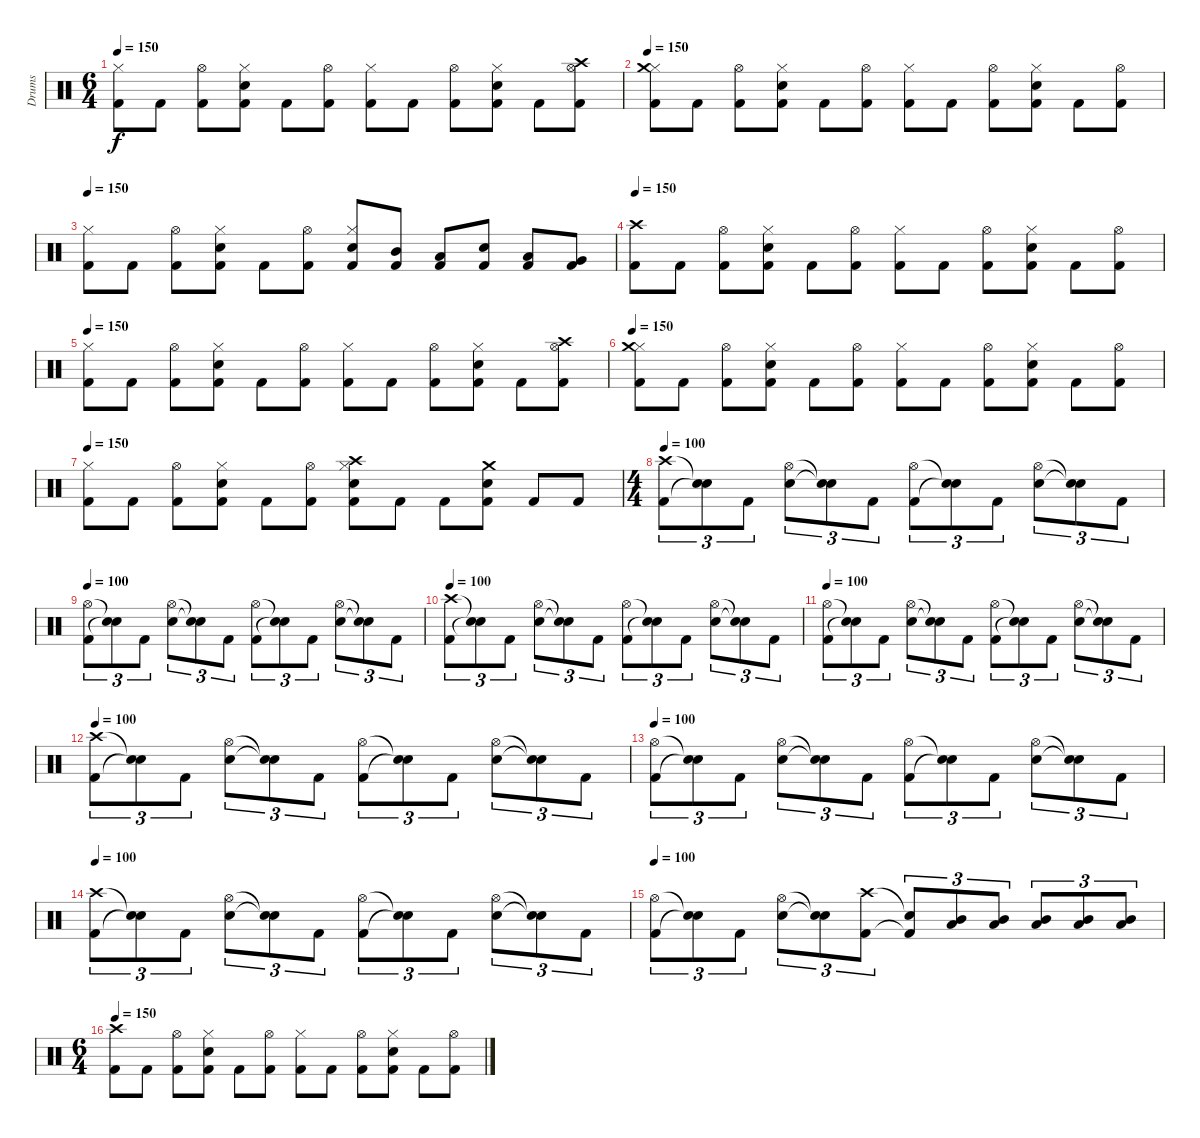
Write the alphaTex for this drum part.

\track ("Drums" "Drums") {instrument percussion}
\staff {score}
\articulation defaults
\ts (6 4)
\tempo 150
\clef neutral
\ks c
("Kick (hit) 2" "Hi-Hat (closed)").8{dy f} "Kick (hit) 2".8 ("Kick (hit) 2" "Hi-Hat (open)").8 ("Kick (hit) 2" "Electric Snare (hit)" "Hi-Hat (closed)").8 "Kick (hit) 2".8 ("Kick (hit) 2" "Hi-Hat (open)").8 ("Kick (hit) 2" "Hi-Hat (closed)").8 "Kick (hit) 2".8 ("Kick (hit) 2" "Hi-Hat (open)").8 ("Kick (hit) 2" "Electric Snare (hit)" "Hi-Hat (closed)").8 "Kick (hit) 2".8 ("Kick (hit) 2" "Hi-Hat (open)" "Crash high (hit)").8 |
\tempo 150
("Kick (hit) 2" "Hi-Hat (closed)" "Crash medium (hit)").8 "Kick (hit) 2".8 ("Kick (hit) 2" "Hi-Hat (open)").8 ("Kick (hit) 2" "Electric Snare (hit)" "Hi-Hat (closed)").8 "Kick (hit) 2".8 ("Kick (hit) 2" "Hi-Hat (open)").8 ("Kick (hit) 2" "Hi-Hat (closed)").8 "Kick (hit) 2".8 ("Kick (hit) 2" "Hi-Hat (open)").8 ("Kick (hit) 2" "Electric Snare (hit)" "Hi-Hat (closed)").8 "Kick (hit) 2".8 ("Kick (hit) 2" "Hi-Hat (open)").8 |
\tempo 150
("Kick (hit) 2" "Hi-Hat (closed)").8 "Kick (hit) 2".8 ("Kick (hit) 2" "Hi-Hat (open)").8 ("Kick (hit) 2" "Electric Snare (hit)" "Hi-Hat (closed)").8 "Kick (hit) 2".8 ("Kick (hit) 2" "Hi-Hat (open)").8 ("Kick (hit) 2" "Electric Snare (hit)" "Hi-Hat (closed)").8 ("Kick (hit) 2" "Mid Tom (hit)").8 ("Kick (hit) 2" "Low Tom (hit)").8 ("Kick (hit) 2" "Electric Snare (hit)").8 ("Kick (hit) 2" "Low Tom (hit)").8 ("Kick (hit) 2" "Very Low Tom (hit)").8 |
\tempo 150
("Kick (hit) 2" "Crash high (hit)").8 "Kick (hit) 2".8 ("Kick (hit) 2" "Hi-Hat (open)").8 ("Kick (hit) 2" "Electric Snare (hit)" "Hi-Hat (closed)").8 "Kick (hit) 2".8 ("Kick (hit) 2" "Hi-Hat (open)").8 ("Kick (hit) 2" "Hi-Hat (closed)").8 "Kick (hit) 2".8 ("Kick (hit) 2" "Hi-Hat (open)").8 ("Kick (hit) 2" "Electric Snare (hit)" "Hi-Hat (closed)").8 "Kick (hit) 2".8 ("Kick (hit) 2" "Hi-Hat (open)").8 |
\tempo 150
("Kick (hit) 2" "Hi-Hat (closed)").8 "Kick (hit) 2".8 ("Kick (hit) 2" "Hi-Hat (open)").8 ("Kick (hit) 2" "Electric Snare (hit)" "Hi-Hat (closed)").8 "Kick (hit) 2".8 ("Kick (hit) 2" "Hi-Hat (open)").8 ("Kick (hit) 2" "Hi-Hat (closed)").8 "Kick (hit) 2".8 ("Kick (hit) 2" "Hi-Hat (open)").8 ("Kick (hit) 2" "Electric Snare (hit)" "Hi-Hat (closed)").8 "Kick (hit) 2".8 ("Kick (hit) 2" "Hi-Hat (open)" "Crash high (hit)").8 |
\tempo 150
("Kick (hit) 2" "Hi-Hat (closed)" "Crash medium (hit)").8 "Kick (hit) 2".8 ("Kick (hit) 2" "Hi-Hat (open)").8 ("Kick (hit) 2" "Electric Snare (hit)" "Hi-Hat (closed)").8 "Kick (hit) 2".8 ("Kick (hit) 2" "Hi-Hat (open)").8 ("Kick (hit) 2" "Hi-Hat (closed)").8 "Kick (hit) 2".8 ("Kick (hit) 2" "Hi-Hat (open)").8 ("Kick (hit) 2" "Electric Snare (hit)" "Hi-Hat (closed)").8 "Kick (hit) 2".8 ("Kick (hit) 2" "Hi-Hat (open)").8 |
\tempo 150
("Kick (hit) 2" "Hi-Hat (closed)").8 "Kick (hit) 2".8 ("Kick (hit) 2" "Hi-Hat (open)").8 ("Kick (hit) 2" "Electric Snare (hit)" "Hi-Hat (closed)").8 "Kick (hit) 2".8 ("Kick (hit) 2" "Hi-Hat (open)").8 ("Kick (hit) 2" "Electric Snare (hit)" "Hi-Hat (closed)" "Crash high (hit)").8 "Kick (hit) 2".8 "Kick (hit) 2".8 ("Kick (hit) 2" "Electric Snare (hit)" "Crash medium (hit)").8 "Kick (hit) 2".8 "Kick (hit) 2".8 |
\ts (4 4)
\tempo 100
("Kick (hit) 2" "Crash high (hit)").8{tu (3 2)} ("Snare (hit)"{t} "Snare (hit)"{t}).8{tu (3 2)} "Kick (hit) 2".8{tu (3 2)} ("Electric Snare (hit)" "Hi-Hat (open)").8{tu (3 2)} ("Snare (hit)"{t} "Snare (hit)"{t}).8{tu (3 2)} "Kick (hit) 2".8{tu (3 2)} ("Kick (hit) 2" "Hi-Hat (open)").8{tu (3 2)} ("Snare (hit)"{t} "Snare (hit)"{t}).8{tu (3 2)} "Kick (hit) 2".8{tu (3 2)} ("Electric Snare (hit)" "Hi-Hat (open)").8{tu (3 2)} ("Snare (hit)"{t} "Snare (hit)"{t}).8{tu (3 2)} "Kick (hit) 2".8{tu (3 2)} |
\tempo 100
("Kick (hit) 2" "Hi-Hat (open)").8{tu (3 2)} ("Snare (hit)"{t} "Snare (hit)"{t}).8{tu (3 2)} "Kick (hit) 2".8{tu (3 2)} ("Electric Snare (hit)" "Hi-Hat (open)").8{tu (3 2)} ("Snare (hit)"{t} "Snare (hit)"{t}).8{tu (3 2)} "Kick (hit) 2".8{tu (3 2)} ("Kick (hit) 2" "Hi-Hat (open)").8{tu (3 2)} ("Snare (hit)"{t} "Snare (hit)"{t}).8{tu (3 2)} "Kick (hit) 2".8{tu (3 2)} ("Electric Snare (hit)" "Hi-Hat (open)").8{tu (3 2)} ("Snare (hit)"{t} "Snare (hit)"{t}).8{tu (3 2)} "Kick (hit) 2".8{tu (3 2)} |
\tempo 100
("Kick (hit) 2" "Crash high (hit)").8{tu (3 2)} ("Snare (hit)"{t} "Snare (hit)"{t}).8{tu (3 2)} "Kick (hit) 2".8{tu (3 2)} ("Electric Snare (hit)" "Hi-Hat (open)").8{tu (3 2)} ("Snare (hit)"{t} "Snare (hit)"{t}).8{tu (3 2)} "Kick (hit) 2".8{tu (3 2)} ("Kick (hit) 2" "Hi-Hat (open)").8{tu (3 2)} ("Snare (hit)"{t} "Snare (hit)"{t}).8{tu (3 2)} "Kick (hit) 2".8{tu (3 2)} ("Electric Snare (hit)" "Hi-Hat (open)").8{tu (3 2)} ("Snare (hit)"{t} "Snare (hit)"{t}).8{tu (3 2)} "Kick (hit) 2".8{tu (3 2)} |
\tempo 100
("Kick (hit) 2" "Hi-Hat (open)").8{tu (3 2)} ("Snare (hit)"{t} "Snare (hit)"{t}).8{tu (3 2)} "Kick (hit) 2".8{tu (3 2)} ("Electric Snare (hit)" "Hi-Hat (open)").8{tu (3 2)} ("Snare (hit)"{t} "Snare (hit)"{t}).8{tu (3 2)} "Kick (hit) 2".8{tu (3 2)} ("Kick (hit) 2" "Hi-Hat (open)").8{tu (3 2)} ("Snare (hit)"{t} "Snare (hit)"{t}).8{tu (3 2)} "Kick (hit) 2".8{tu (3 2)} ("Electric Snare (hit)" "Hi-Hat (open)").8{tu (3 2)} ("Snare (hit)"{t} "Snare (hit)"{t}).8{tu (3 2)} "Kick (hit) 2".8{tu (3 2)} |
\tempo 100
("Kick (hit) 2" "Crash high (hit)").8{tu (3 2)} ("Snare (hit)"{t} "Snare (hit)"{t}).8{tu (3 2)} "Kick (hit) 2".8{tu (3 2)} ("Electric Snare (hit)" "Hi-Hat (open)").8{tu (3 2)} ("Snare (hit)"{t} "Snare (hit)"{t}).8{tu (3 2)} "Kick (hit) 2".8{tu (3 2)} ("Kick (hit) 2" "Hi-Hat (open)").8{tu (3 2)} ("Snare (hit)"{t} "Snare (hit)"{t}).8{tu (3 2)} "Kick (hit) 2".8{tu (3 2)} ("Electric Snare (hit)" "Hi-Hat (open)").8{tu (3 2)} ("Snare (hit)"{t} "Snare (hit)"{t}).8{tu (3 2)} "Kick (hit) 2".8{tu (3 2)} |
\tempo 100
("Kick (hit) 2" "Hi-Hat (open)").8{tu (3 2)} ("Snare (hit)"{t} "Snare (hit)"{t}).8{tu (3 2)} "Kick (hit) 2".8{tu (3 2)} ("Electric Snare (hit)" "Hi-Hat (open)").8{tu (3 2)} ("Snare (hit)"{t} "Snare (hit)"{t}).8{tu (3 2)} "Kick (hit) 2".8{tu (3 2)} ("Kick (hit) 2" "Hi-Hat (open)").8{tu (3 2)} ("Snare (hit)"{t} "Snare (hit)"{t}).8{tu (3 2)} "Kick (hit) 2".8{tu (3 2)} ("Electric Snare (hit)" "Hi-Hat (open)").8{tu (3 2)} ("Snare (hit)"{t} "Snare (hit)"{t}).8{tu (3 2)} "Kick (hit) 2".8{tu (3 2)} |
\tempo 100
("Kick (hit) 2" "Crash high (hit)").8{tu (3 2)} ("Snare (hit)"{t} "Snare (hit)"{t}).8{tu (3 2)} "Kick (hit) 2".8{tu (3 2)} ("Electric Snare (hit)" "Hi-Hat (open)").8{tu (3 2)} ("Snare (hit)"{t} "Snare (hit)"{t}).8{tu (3 2)} "Kick (hit) 2".8{tu (3 2)} ("Kick (hit) 2" "Hi-Hat (open)").8{tu (3 2)} ("Snare (hit)"{t} "Snare (hit)"{t}).8{tu (3 2)} "Kick (hit) 2".8{tu (3 2)} ("Electric Snare (hit)" "Hi-Hat (open)").8{tu (3 2)} ("Snare (hit)"{t} "Snare (hit)"{t}).8{tu (3 2)} "Kick (hit) 2".8{tu (3 2)} |
\tempo 100
("Kick (hit) 2" "Hi-Hat (open)").8{tu (3 2)} ("Snare (hit)"{t} "Snare (hit)"{t}).8{tu (3 2)} "Kick (hit) 2".8{tu (3 2)} ("Electric Snare (hit)" "Hi-Hat (open)").8{tu (3 2)} ("Snare (hit)"{t} "Snare (hit)"{t}).8{tu (3 2)} ("Kick (hit) 2" "Crash high (hit)").8{tu (3 2)} ("Kick (hit) 2"{t} "Snare (hit)"{t}).8{tu (3 2)} ("Mid Tom (hit)" "Low Tom (hit)").8{tu (3 2)} ("Mid Tom (hit)" "Low Tom (hit)").8{tu (3 2)} ("Mid Tom (hit)" "Low Tom (hit)").8{tu (3 2)} ("Mid Tom (hit)" "Low Tom (hit)").8{tu (3 2)} ("Mid Tom (hit)" "Low Tom (hit)").8{tu (3 2)} |
\ts (6 4)
\tempo 150
("Kick (hit) 2" "Crash high (hit)").8 "Kick (hit) 2".8 ("Kick (hit) 2" "Hi-Hat (open)").8 ("Kick (hit) 2" "Electric Snare (hit)" "Hi-Hat (closed)").8 "Kick (hit) 2".8 ("Kick (hit) 2" "Hi-Hat (open)").8 ("Kick (hit) 2" "Hi-Hat (closed)").8 "Kick (hit) 2".8 ("Kick (hit) 2" "Hi-Hat (open)").8 ("Kick (hit) 2" "Electric Snare (hit)" "Hi-Hat (closed)").8 "Kick (hit) 2".8 ("Kick (hit) 2" "Hi-Hat (open)").8
